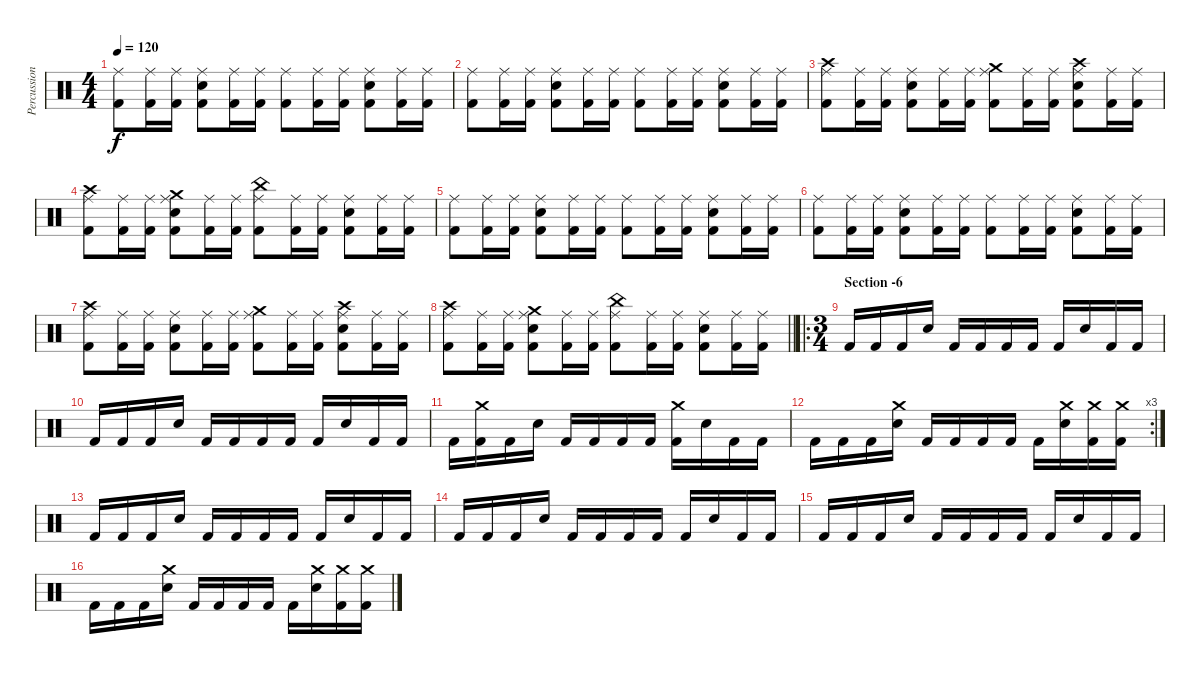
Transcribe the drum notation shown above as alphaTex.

\track ("Percussion" "Percussion") {instrument percussion}
\staff {score}
\articulation defaults
\ts (4 4)
\tempo 120
\clef neutral
\ks c
("Kick (hit) 2" "Ride (middle)").8{dy f} ("Kick (hit) 2" "Ride (middle)").16 ("Kick (hit) 2" "Ride (middle)").16 ("Kick (hit) 2" "Snare (hit) 2" "Ride (middle)").8 ("Kick (hit) 2" "Ride (middle)").16 ("Kick (hit) 2" "Ride (middle)").16 ("Kick (hit) 2" "Ride (middle)").8 ("Kick (hit) 2" "Ride (middle)").16 ("Kick (hit) 2" "Ride (middle)").16 ("Kick (hit) 2" "Snare (hit) 2" "Ride (middle)").8 ("Kick (hit) 2" "Ride (middle)").16 ("Kick (hit) 2" "Ride (middle)").16 |
("Kick (hit) 2" "Ride (middle)").8 ("Kick (hit) 2" "Ride (middle)").16 ("Kick (hit) 2" "Ride (middle)").16 ("Kick (hit) 2" "Snare (hit) 2" "Ride (middle)").8 ("Kick (hit) 2" "Ride (middle)").16 ("Kick (hit) 2" "Ride (middle)").16 ("Kick (hit) 2" "Ride (middle)").8 ("Kick (hit) 2" "Ride (middle)").16 ("Kick (hit) 2" "Ride (middle)").16 ("Kick (hit) 2" "Snare (hit) 2" "Ride (middle)").8 ("Kick (hit) 2" "Ride (middle)").16 ("Kick (hit) 2" "Ride (middle)").16 |
("Kick (hit) 2" "Ride (middle)" "Crash high (hit)").8 ("Kick (hit) 2" "Ride (middle)").16 ("Kick (hit) 2" "Ride (middle)").16 ("Kick (hit) 2" "Snare (hit) 2" "Ride (middle)").8 ("Kick (hit) 2" "Ride (middle)").16 ("Kick (hit) 2" "Ride (middle)").16 ("Kick (hit) 2" "Ride (middle)" "Crash medium (hit)").8 ("Kick (hit) 2" "Ride (middle)").16 ("Kick (hit) 2" "Ride (middle)").16 ("Kick (hit) 2" "Snare (hit) 2" "Ride (middle)" "Crash high (hit)").8 ("Kick (hit) 2" "Ride (middle)").16 ("Kick (hit) 2" "Ride (middle)").16 |
("Kick (hit) 2" "Ride (middle)" "Crash high (hit)").8 ("Kick (hit) 2" "Ride (middle)").16 ("Kick (hit) 2" "Ride (middle)").16 ("Kick (hit) 2" "Snare (hit) 2" "Ride (middle)" "Crash medium (hit)").8 ("Kick (hit) 2" "Ride (middle)").16 ("Kick (hit) 2" "Ride (middle)").16 ("Kick (hit) 2" "Ride (middle)" "China (hit)").8 ("Kick (hit) 2" "Ride (middle)").16 ("Kick (hit) 2" "Ride (middle)").16 ("Kick (hit) 2" "Snare (hit) 2" "Ride (middle)").8 ("Kick (hit) 2" "Ride (middle)").16 ("Kick (hit) 2" "Ride (middle)").16 |
("Kick (hit) 2" "Ride (middle)").8 ("Kick (hit) 2" "Ride (middle)").16 ("Kick (hit) 2" "Ride (middle)").16 ("Kick (hit) 2" "Snare (hit) 2" "Ride (middle)").8 ("Kick (hit) 2" "Ride (middle)").16 ("Kick (hit) 2" "Ride (middle)").16 ("Kick (hit) 2" "Ride (middle)").8 ("Kick (hit) 2" "Ride (middle)").16 ("Kick (hit) 2" "Ride (middle)").16 ("Kick (hit) 2" "Snare (hit) 2" "Ride (middle)").8 ("Kick (hit) 2" "Ride (middle)").16 ("Kick (hit) 2" "Ride (middle)").16 |
("Kick (hit) 2" "Ride (middle)").8 ("Kick (hit) 2" "Ride (middle)").16 ("Kick (hit) 2" "Ride (middle)").16 ("Kick (hit) 2" "Snare (hit) 2" "Ride (middle)").8 ("Kick (hit) 2" "Ride (middle)").16 ("Kick (hit) 2" "Ride (middle)").16 ("Kick (hit) 2" "Ride (middle)").8 ("Kick (hit) 2" "Ride (middle)").16 ("Kick (hit) 2" "Ride (middle)").16 ("Kick (hit) 2" "Snare (hit) 2" "Ride (middle)").8 ("Kick (hit) 2" "Ride (middle)").16 ("Kick (hit) 2" "Ride (middle)").16 |
("Kick (hit) 2" "Ride (middle)" "Crash high (hit)").8 ("Kick (hit) 2" "Ride (middle)").16 ("Kick (hit) 2" "Ride (middle)").16 ("Kick (hit) 2" "Snare (hit) 2" "Ride (middle)").8 ("Kick (hit) 2" "Ride (middle)").16 ("Kick (hit) 2" "Ride (middle)").16 ("Kick (hit) 2" "Ride (middle)" "Crash medium (hit)").8 ("Kick (hit) 2" "Ride (middle)").16 ("Kick (hit) 2" "Ride (middle)").16 ("Kick (hit) 2" "Snare (hit) 2" "Ride (middle)" "Crash high (hit)").8 ("Kick (hit) 2" "Ride (middle)").16 ("Kick (hit) 2" "Ride (middle)").16 |
\barLineRight lightlight
("Kick (hit) 2" "Ride (middle)" "Crash high (hit)").8 ("Kick (hit) 2" "Ride (middle)").16 ("Kick (hit) 2" "Ride (middle)").16 ("Kick (hit) 2" "Snare (hit) 2" "Ride (middle)" "Crash medium (hit)").8 ("Kick (hit) 2" "Ride (middle)").16 ("Kick (hit) 2" "Ride (middle)").16 ("Kick (hit) 2" "Ride (middle)" "China (hit)").8 ("Kick (hit) 2" "Ride (middle)").16 ("Kick (hit) 2" "Ride (middle)").16 ("Kick (hit) 2" "Snare (hit) 2" "Ride (middle)").8 ("Kick (hit) 2" "Ride (middle)").16 ("Kick (hit) 2" "Ride (middle)").16 |
\ro
\ts (3 4)
\section ("" "Section -6")
"Kick (hit) 2".16 "Kick (hit) 2".16 "Kick (hit) 2".16 "Snare (hit) 2".16 "Kick (hit) 2".16 "Kick (hit) 2".16 "Kick (hit) 2".16 "Kick (hit) 2".16 "Kick (hit) 2".16 "Snare (hit) 2".16 "Kick (hit) 2".16 "Kick (hit) 2".16 |
"Kick (hit) 2".16 "Kick (hit) 2".16 "Kick (hit) 2".16 "Snare (hit) 2".16 "Kick (hit) 2".16 "Kick (hit) 2".16 "Kick (hit) 2".16 "Kick (hit) 2".16 "Kick (hit) 2".16 "Snare (hit) 2".16 "Kick (hit) 2".16 "Kick (hit) 2".16 |
"Kick (hit) 2".16 ("Kick (hit) 2" "Crash medium (hit)").16 "Kick (hit) 2".16 "Snare (hit) 2".16 "Kick (hit) 2".16 "Kick (hit) 2".16 "Kick (hit) 2".16 "Kick (hit) 2".16 ("Kick (hit) 2" "Crash medium (hit)").16 "Snare (hit) 2".16 "Kick (hit) 2".16 "Kick (hit) 2".16 |
\rc 3 "Kick (hit) 2".16 "Kick (hit) 2".16 "Kick (hit) 2".16
("Snare (hit) 2" "Crash medium (hit)").16 "Kick (hit) 2".16 "Kick (hit) 2".16 "Kick (hit) 2".16 "Kick (hit) 2".16 "Kick (hit) 2".16 ("Snare (hit) 2" "Crash medium (hit)").16 ("Kick (hit) 2" "Crash medium (hit)").16 ("Kick (hit) 2" "Crash medium (hit)").16 |
"Kick (hit) 2".16 "Kick (hit) 2".16 "Kick (hit) 2".16 "Snare (hit) 2".16 "Kick (hit) 2".16 "Kick (hit) 2".16 "Kick (hit) 2".16 "Kick (hit) 2".16 "Kick (hit) 2".16 "Snare (hit) 2".16 "Kick (hit) 2".16 "Kick (hit) 2".16 |
"Kick (hit) 2".16 "Kick (hit) 2".16 "Kick (hit) 2".16 "Snare (hit) 2".16 "Kick (hit) 2".16 "Kick (hit) 2".16 "Kick (hit) 2".16 "Kick (hit) 2".16 "Kick (hit) 2".16 "Snare (hit) 2".16 "Kick (hit) 2".16 "Kick (hit) 2".16 |
"Kick (hit) 2".16 "Kick (hit) 2".16 "Kick (hit) 2".16 "Snare (hit) 2".16 "Kick (hit) 2".16 "Kick (hit) 2".16 "Kick (hit) 2".16 "Kick (hit) 2".16 "Kick (hit) 2".16 "Snare (hit) 2".16 "Kick (hit) 2".16 "Kick (hit) 2".16 |
"Kick (hit) 2".16 "Kick (hit) 2".16 "Kick (hit) 2".16 ("Snare (hit) 2" "Crash medium (hit)").16 "Kick (hit) 2".16 "Kick (hit) 2".16 "Kick (hit) 2".16 "Kick (hit) 2".16 "Kick (hit) 2".16 ("Snare (hit) 2" "Crash medium (hit)").16 ("Kick (hit) 2" "Crash medium (hit)").16 ("Kick (hit) 2" "Crash medium (hit)").16
